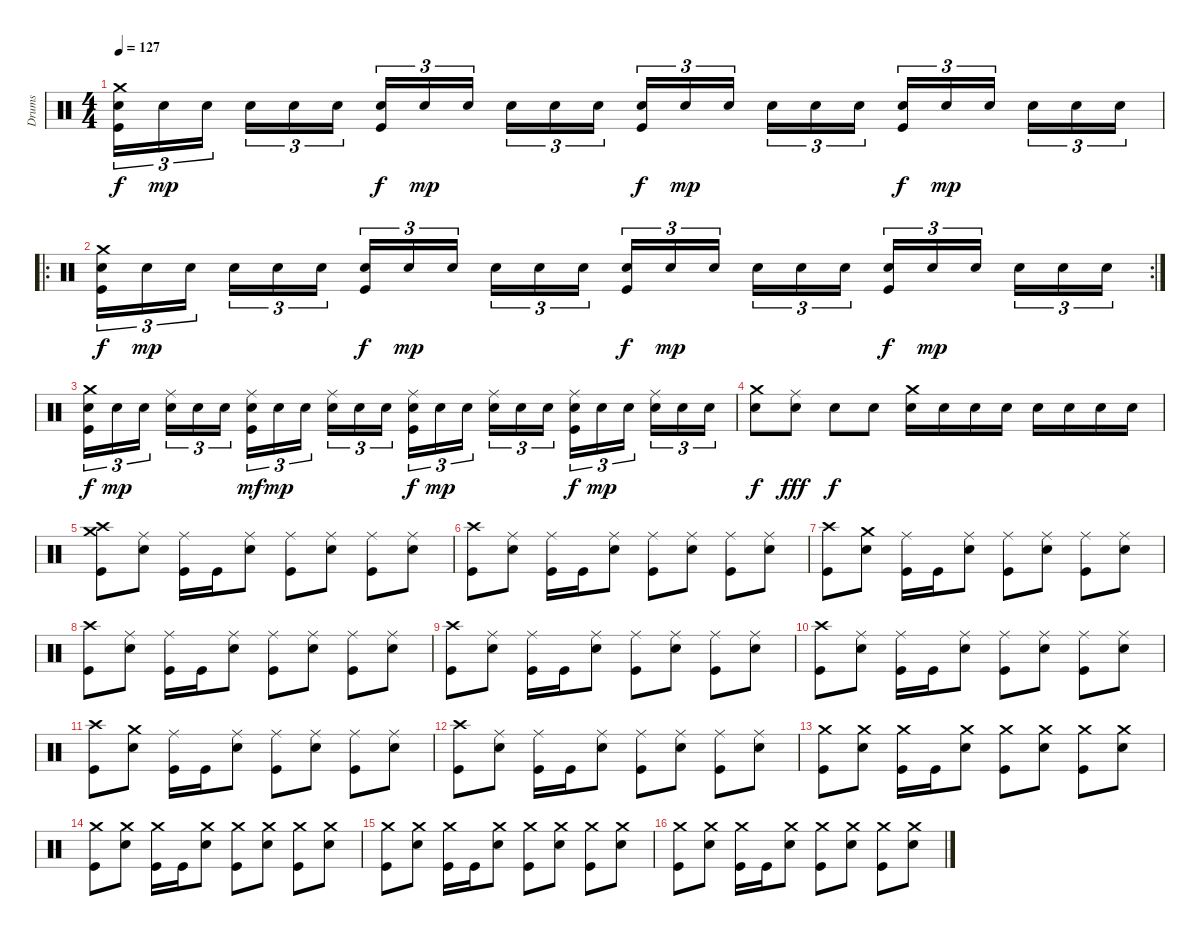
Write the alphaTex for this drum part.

\track ("Drums" "Drums") {instrument percussion}
\staff {score}
\articulation defaults
\ts (4 4)
\tempo 127
\clef neutral
\ks c
("Crash medium (hit)" "Electric Snare (hit)" "Kick (hit)").16{tu (3 2) dy f} "Electric Snare (hit)".16{tu (3 2) dy mp} "Electric Snare (hit)".16{tu (3 2)} "Electric Snare (hit)".16{tu (3 2)} "Electric Snare (hit)".16{tu (3 2)} "Electric Snare (hit)".16{tu (3 2)} ("Electric Snare (hit)" "Kick (hit)").16{tu (3 2) dy f} "Electric Snare (hit)".16{tu (3 2) dy mp} "Electric Snare (hit)".16{tu (3 2)} "Electric Snare (hit)".16{tu (3 2)} "Electric Snare (hit)".16{tu (3 2)} "Electric Snare (hit)".16{tu (3 2)} ("Electric Snare (hit)" "Kick (hit)").16{tu (3 2) dy f} "Electric Snare (hit)".16{tu (3 2) dy mp} "Electric Snare (hit)".16{tu (3 2)} "Electric Snare (hit)".16{tu (3 2)} "Electric Snare (hit)".16{tu (3 2)} "Electric Snare (hit)".16{tu (3 2)} ("Electric Snare (hit)" "Kick (hit)").16{tu (3 2) dy f} "Electric Snare (hit)".16{tu (3 2) dy mp} "Electric Snare (hit)".16{tu (3 2)} "Electric Snare (hit)".16{tu (3 2)} "Electric Snare (hit)".16{tu (3 2)} "Electric Snare (hit)".16{tu (3 2)} |
\ro
\rc 2
("Crash medium (hit)" "Electric Snare (hit)" "Kick (hit)").16{tu (3 2) dy f} "Electric Snare (hit)".16{tu (3 2) dy mp} "Electric Snare (hit)".16{tu (3 2)} "Electric Snare (hit)".16{tu (3 2)} "Electric Snare (hit)".16{tu (3 2)} "Electric Snare (hit)".16{tu (3 2)} ("Electric Snare (hit)" "Kick (hit)").16{tu (3 2) dy f} "Electric Snare (hit)".16{tu (3 2) dy mp} "Electric Snare (hit)".16{tu (3 2)} "Electric Snare (hit)".16{tu (3 2)} "Electric Snare (hit)".16{tu (3 2)} "Electric Snare (hit)".16{tu (3 2)} ("Electric Snare (hit)" "Kick (hit)").16{tu (3 2) dy f} "Electric Snare (hit)".16{tu (3 2) dy mp} "Electric Snare (hit)".16{tu (3 2)} "Electric Snare (hit)".16{tu (3 2)} "Electric Snare (hit)".16{tu (3 2)} "Electric Snare (hit)".16{tu (3 2)} ("Electric Snare (hit)" "Kick (hit)").16{tu (3 2) dy f} "Electric Snare (hit)".16{tu (3 2) dy mp} "Electric Snare (hit)".16{tu (3 2)} "Electric Snare (hit)".16{tu (3 2)} "Electric Snare (hit)".16{tu (3 2)} "Electric Snare (hit)".16{tu (3 2)} |
("Crash medium (hit)" "Electric Snare (hit)" "Kick (hit)").16{tu (3 2) dy f} "Electric Snare (hit)".16{tu (3 2) dy mp} "Electric Snare (hit)".16{tu (3 2)} ("Ride (middle)" "Electric Snare (hit)").16{tu (3 2)} "Electric Snare (hit)".16{tu (3 2)} "Electric Snare (hit)".16{tu (3 2)} ("Ride (middle)" "Electric Snare (hit)" "Kick (hit)").16{tu (3 2) dy mf} "Electric Snare (hit)".16{tu (3 2) dy mp} "Electric Snare (hit)".16{tu (3 2)} ("Ride (middle)" "Electric Snare (hit)").16{tu (3 2)} "Electric Snare (hit)".16{tu (3 2)} "Electric Snare (hit)".16{tu (3 2)} ("Ride (middle)" "Electric Snare (hit)" "Kick (hit)").16{tu (3 2) dy f} "Electric Snare (hit)".16{tu (3 2) dy mp} "Electric Snare (hit)".16{tu (3 2)} ("Ride (middle)" "Electric Snare (hit)").16{tu (3 2)} "Electric Snare (hit)".16{tu (3 2)} "Electric Snare (hit)".16{tu (3 2)} ("Ride (middle)" "Electric Snare (hit)" "Kick (hit)").16{tu (3 2) dy f} "Electric Snare (hit)".16{tu (3 2) dy mp} "Electric Snare (hit)".16{tu (3 2)} ("Ride (middle)" "Electric Snare (hit)").16{tu (3 2)} "Electric Snare (hit)".16{tu (3 2)} "Electric Snare (hit)".16{tu (3 2)} |
("Crash medium (hit)" "Electric Snare (hit)").8{dy f} ("Ride (middle)" "Electric Snare (hit)").8{dy fff} "Electric Snare (hit)".8{dy f} "Electric Snare (hit)".8 ("Crash medium (hit)" "Electric Snare (hit)").16 "Electric Snare (hit)".16 "Electric Snare (hit)".16 "Electric Snare (hit)".16 "Electric Snare (hit)".16 "Electric Snare (hit)".16 "Electric Snare (hit)".16 "Electric Snare (hit)".16 |
("Crash high (hit)" "Crash medium (hit)" "Kick (hit)").8 ("Ride (middle)" "Electric Snare (hit)").8 ("Ride (middle)" "Kick (hit)").16 "Kick (hit)".16 ("Ride (middle)" "Electric Snare (hit)").8 ("Ride (middle)" "Kick (hit)").8 ("Ride (middle)" "Electric Snare (hit)").8 ("Ride (middle)" "Kick (hit)").8 ("Ride (middle)" "Electric Snare (hit)").8 |
("Crash high (hit)" "Kick (hit)").8 ("Ride (middle)" "Electric Snare (hit)").8 ("Ride (middle)" "Kick (hit)").16 "Kick (hit)".16 ("Ride (middle)" "Electric Snare (hit)").8 ("Ride (middle)" "Kick (hit)").8 ("Ride (middle)" "Electric Snare (hit)").8 ("Ride (middle)" "Kick (hit)").8 ("Ride (middle)" "Electric Snare (hit)").8 |
("Crash high (hit)" "Kick (hit)").8 ("Crash medium (hit)" "Electric Snare (hit)").8 ("Ride (middle)" "Kick (hit)").16 "Kick (hit)".16 ("Ride (middle)" "Electric Snare (hit)").8 ("Ride (middle)" "Kick (hit)").8 ("Ride (middle)" "Electric Snare (hit)").8 ("Ride (middle)" "Kick (hit)").8 ("Ride (middle)" "Electric Snare (hit)").8 |
("Crash high (hit)" "Kick (hit)").8 ("Ride (middle)" "Electric Snare (hit)").8 ("Ride (middle)" "Kick (hit)").16 "Kick (hit)".16 ("Ride (middle)" "Electric Snare (hit)").8 ("Ride (middle)" "Kick (hit)").8 ("Ride (middle)" "Electric Snare (hit)").8 ("Ride (middle)" "Kick (hit)").8 ("Ride (middle)" "Electric Snare (hit)").8 |
("Crash high (hit)" "Kick (hit)").8 ("Ride (middle)" "Electric Snare (hit)").8 ("Ride (middle)" "Kick (hit)").16 "Kick (hit)".16 ("Ride (middle)" "Electric Snare (hit)").8 ("Ride (middle)" "Kick (hit)").8 ("Ride (middle)" "Electric Snare (hit)").8 ("Ride (middle)" "Kick (hit)").8 ("Ride (middle)" "Electric Snare (hit)").8 |
("Crash high (hit)" "Kick (hit)").8 ("Ride (middle)" "Electric Snare (hit)").8 ("Ride (middle)" "Kick (hit)").16 "Kick (hit)".16 ("Ride (middle)" "Electric Snare (hit)").8 ("Ride (middle)" "Kick (hit)").8 ("Ride (middle)" "Electric Snare (hit)").8 ("Ride (middle)" "Kick (hit)").8 ("Ride (middle)" "Electric Snare (hit)").8 |
("Crash high (hit)" "Kick (hit)").8 ("Crash medium (hit)" "Electric Snare (hit)").8 ("Ride (middle)" "Kick (hit)").16 "Kick (hit)".16 ("Ride (middle)" "Electric Snare (hit)").8 ("Ride (middle)" "Kick (hit)").8 ("Ride (middle)" "Electric Snare (hit)").8 ("Ride (middle)" "Kick (hit)").8 ("Ride (middle)" "Electric Snare (hit)").8 |
("Crash high (hit)" "Kick (hit)").8 ("Ride (middle)" "Electric Snare (hit)").8 ("Ride (middle)" "Kick (hit)").16 "Kick (hit)".16 ("Ride (middle)" "Electric Snare (hit)").8 ("Ride (middle)" "Kick (hit)").8 ("Ride (middle)" "Electric Snare (hit)").8 ("Ride (middle)" "Kick (hit)").8 ("Ride (middle)" "Electric Snare (hit)").8 |
("Crash medium (hit)" "Kick (hit)").8 ("Crash medium (hit)" "Electric Snare (hit)").8 ("Crash medium (hit)" "Kick (hit)").16 "Kick (hit)".16 ("Crash medium (hit)" "Electric Snare (hit)").8 ("Crash medium (hit)" "Kick (hit)").8 ("Crash medium (hit)" "Electric Snare (hit)").8 ("Crash medium (hit)" "Kick (hit)").8 ("Crash medium (hit)" "Electric Snare (hit)").8 |
("Crash medium (hit)" "Kick (hit)").8 ("Crash medium (hit)" "Electric Snare (hit)").8 ("Crash medium (hit)" "Kick (hit)").16 "Kick (hit)".16 ("Crash medium (hit)" "Electric Snare (hit)").8 ("Crash medium (hit)" "Kick (hit)").8 ("Crash medium (hit)" "Electric Snare (hit)").8 ("Crash medium (hit)" "Kick (hit)").8 ("Crash medium (hit)" "Electric Snare (hit)").8 |
("Crash medium (hit)" "Kick (hit)").8 ("Crash medium (hit)" "Electric Snare (hit)").8 ("Crash medium (hit)" "Kick (hit)").16 "Kick (hit)".16 ("Crash medium (hit)" "Electric Snare (hit)").8 ("Crash medium (hit)" "Kick (hit)").8 ("Crash medium (hit)" "Electric Snare (hit)").8 ("Crash medium (hit)" "Kick (hit)").8 ("Crash medium (hit)" "Electric Snare (hit)").8 |
("Crash medium (hit)" "Kick (hit)").8 ("Crash medium (hit)" "Electric Snare (hit)").8 ("Crash medium (hit)" "Kick (hit)").16 "Kick (hit)".16 ("Crash medium (hit)" "Electric Snare (hit)").8 ("Crash medium (hit)" "Kick (hit)").8 ("Crash medium (hit)" "Electric Snare (hit)").8 ("Crash medium (hit)" "Kick (hit)").8 ("Crash medium (hit)" "Electric Snare (hit)").8
